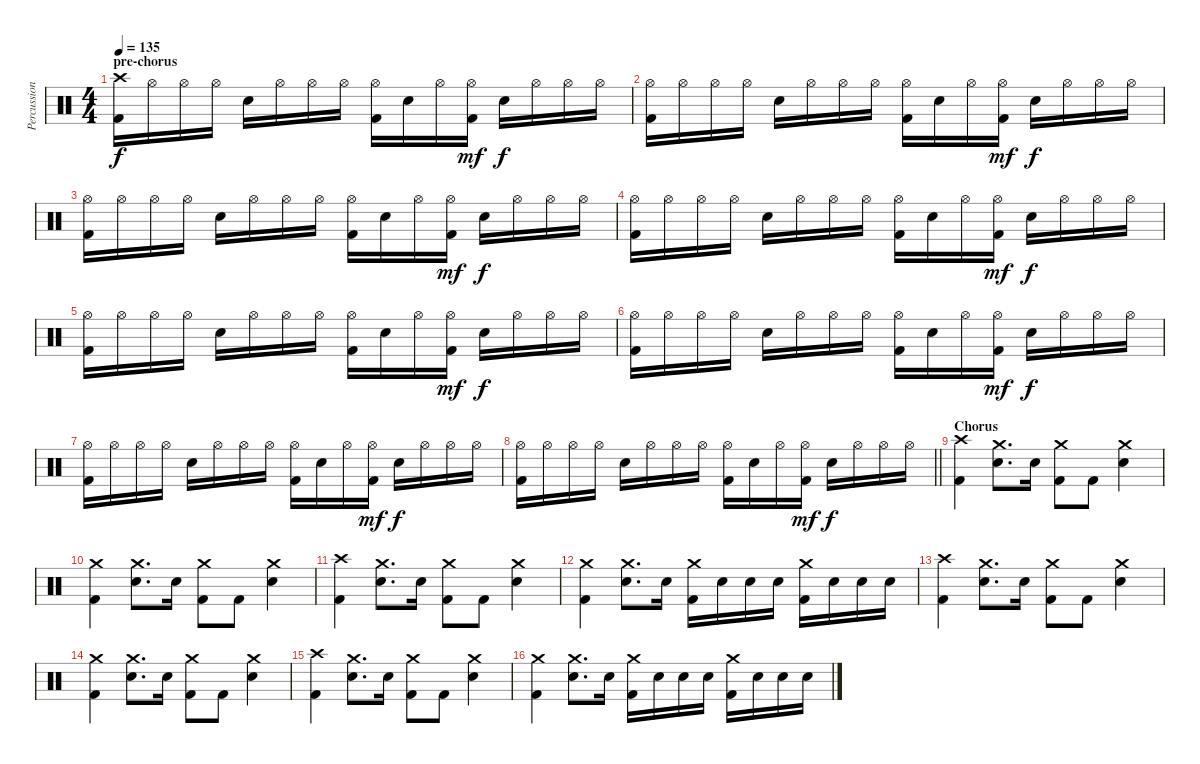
\track ("Percussion" "Percussion") {instrument percussion}
\staff {score}
\articulation defaults
\ts (4 4)
\section ("" "pre-chorus")
\tempo 135
\clef neutral
\ks c
("Crash high (hit)" "Kick (hit) 2").16{dy f} "Hi-Hat (open)".16 "Hi-Hat (open)".16 "Hi-Hat (open)".16 "Electric Snare (hit)".16 "Hi-Hat (open)".16 "Hi-Hat (open)".16 "Hi-Hat (open)".16 ("Hi-Hat (open)" "Kick (hit) 2").16 "Electric Snare (hit)".16 "Hi-Hat (open)".16 ("Hi-Hat (open)" "Kick (hit) 2").16{dy mf} "Electric Snare (hit)".16{dy f} "Hi-Hat (open)".16 "Hi-Hat (open)".16 "Hi-Hat (open)".16 |
("Hi-Hat (open)" "Kick (hit) 2").16 "Hi-Hat (open)".16 "Hi-Hat (open)".16 "Hi-Hat (open)".16 "Electric Snare (hit)".16 "Hi-Hat (open)".16 "Hi-Hat (open)".16 "Hi-Hat (open)".16 ("Hi-Hat (open)" "Kick (hit) 2").16 "Electric Snare (hit)".16 "Hi-Hat (open)".16 ("Hi-Hat (open)" "Kick (hit) 2").16{dy mf} "Electric Snare (hit)".16{dy f} "Hi-Hat (open)".16 "Hi-Hat (open)".16 "Hi-Hat (open)".16 |
("Hi-Hat (open)" "Kick (hit) 2").16 "Hi-Hat (open)".16 "Hi-Hat (open)".16 "Hi-Hat (open)".16 "Electric Snare (hit)".16 "Hi-Hat (open)".16 "Hi-Hat (open)".16 "Hi-Hat (open)".16 ("Hi-Hat (open)" "Kick (hit) 2").16 "Electric Snare (hit)".16 "Hi-Hat (open)".16 ("Hi-Hat (open)" "Kick (hit) 2").16{dy mf} "Electric Snare (hit)".16{dy f} "Hi-Hat (open)".16 "Hi-Hat (open)".16 "Hi-Hat (open)".16 |
("Hi-Hat (open)" "Kick (hit) 2").16 "Hi-Hat (open)".16 "Hi-Hat (open)".16 "Hi-Hat (open)".16 "Electric Snare (hit)".16 "Hi-Hat (open)".16 "Hi-Hat (open)".16 "Hi-Hat (open)".16 ("Hi-Hat (open)" "Kick (hit) 2").16 "Electric Snare (hit)".16 "Hi-Hat (open)".16 ("Hi-Hat (open)" "Kick (hit) 2").16{dy mf} "Electric Snare (hit)".16{dy f} "Hi-Hat (open)".16 "Hi-Hat (open)".16 "Hi-Hat (open)".16 |
("Hi-Hat (open)" "Kick (hit) 2").16 "Hi-Hat (open)".16 "Hi-Hat (open)".16 "Hi-Hat (open)".16 "Electric Snare (hit)".16 "Hi-Hat (open)".16 "Hi-Hat (open)".16 "Hi-Hat (open)".16 ("Hi-Hat (open)" "Kick (hit) 2").16 "Electric Snare (hit)".16 "Hi-Hat (open)".16 ("Hi-Hat (open)" "Kick (hit) 2").16{dy mf} "Electric Snare (hit)".16{dy f} "Hi-Hat (open)".16 "Hi-Hat (open)".16 "Hi-Hat (open)".16 |
("Hi-Hat (open)" "Kick (hit) 2").16 "Hi-Hat (open)".16 "Hi-Hat (open)".16 "Hi-Hat (open)".16 "Electric Snare (hit)".16 "Hi-Hat (open)".16 "Hi-Hat (open)".16 "Hi-Hat (open)".16 ("Hi-Hat (open)" "Kick (hit) 2").16 "Electric Snare (hit)".16 "Hi-Hat (open)".16 ("Hi-Hat (open)" "Kick (hit) 2").16{dy mf} "Electric Snare (hit)".16{dy f} "Hi-Hat (open)".16 "Hi-Hat (open)".16 "Hi-Hat (open)".16 |
("Hi-Hat (open)" "Kick (hit) 2").16 "Hi-Hat (open)".16 "Hi-Hat (open)".16 "Hi-Hat (open)".16 "Electric Snare (hit)".16 "Hi-Hat (open)".16 "Hi-Hat (open)".16 "Hi-Hat (open)".16 ("Hi-Hat (open)" "Kick (hit) 2").16 "Electric Snare (hit)".16 "Hi-Hat (open)".16 ("Hi-Hat (open)" "Kick (hit) 2").16{dy mf} "Electric Snare (hit)".16{dy f} "Hi-Hat (open)".16 "Hi-Hat (open)".16 "Hi-Hat (open)".16 |
\barLineRight lightlight
("Hi-Hat (open)" "Kick (hit) 2").16 "Hi-Hat (open)".16 "Hi-Hat (open)".16 "Hi-Hat (open)".16 "Electric Snare (hit)".16 "Hi-Hat (open)".16 "Hi-Hat (open)".16 "Hi-Hat (open)".16 ("Hi-Hat (open)" "Kick (hit) 2").16 "Electric Snare (hit)".16 "Hi-Hat (open)".16 ("Hi-Hat (open)" "Kick (hit) 2").16{dy mf} "Electric Snare (hit)".16{dy f} "Hi-Hat (open)".16 "Hi-Hat (open)".16 "Hi-Hat (open)".16 |
\section ("" "Chorus")
("Crash high (hit)" "Kick (hit) 2").4 ("Crash medium (hit)" "Electric Snare (hit)").8{d} "Electric Snare (hit)".16 ("Crash medium (hit)" "Kick (hit) 2").8 "Kick (hit) 2".8 ("Crash medium (hit)" "Electric Snare (hit)").4 |
("Crash medium (hit)" "Kick (hit) 2").4 ("Crash medium (hit)" "Electric Snare (hit)").8{d} "Electric Snare (hit)".16 ("Crash medium (hit)" "Kick (hit) 2").8 "Kick (hit) 2".8 ("Crash medium (hit)" "Electric Snare (hit)").4 |
("Crash high (hit)" "Kick (hit) 2").4 ("Crash medium (hit)" "Electric Snare (hit)").8{d} "Electric Snare (hit)".16 ("Crash medium (hit)" "Kick (hit) 2").8 "Kick (hit) 2".8 ("Crash medium (hit)" "Electric Snare (hit)").4 |
("Crash medium (hit)" "Kick (hit) 2").4 ("Crash medium (hit)" "Electric Snare (hit)").8{d} "Electric Snare (hit)".16 ("Crash medium (hit)" "Kick (hit) 2").16 "Electric Snare (hit)".16 "Electric Snare (hit)".16 "Electric Snare (hit)".16 ("Crash medium (hit)" "Kick (hit) 2").16 "Electric Snare (hit)".16 "Electric Snare (hit)".16 "Electric Snare (hit)".16 |
("Crash high (hit)" "Kick (hit) 2").4 ("Crash medium (hit)" "Electric Snare (hit)").8{d} "Electric Snare (hit)".16 ("Crash medium (hit)" "Kick (hit) 2").8 "Kick (hit) 2".8 ("Crash medium (hit)" "Electric Snare (hit)").4 |
("Crash medium (hit)" "Kick (hit) 2").4 ("Crash medium (hit)" "Electric Snare (hit)").8{d} "Electric Snare (hit)".16 ("Crash medium (hit)" "Kick (hit) 2").8 "Kick (hit) 2".8 ("Crash medium (hit)" "Electric Snare (hit)").4 |
("Crash high (hit)" "Kick (hit) 2").4 ("Crash medium (hit)" "Electric Snare (hit)").8{d} "Electric Snare (hit)".16 ("Crash medium (hit)" "Kick (hit) 2").8 "Kick (hit) 2".8 ("Crash medium (hit)" "Electric Snare (hit)").4 |
("Crash medium (hit)" "Kick (hit) 2").4 ("Crash medium (hit)" "Electric Snare (hit)").8{d} "Electric Snare (hit)".16 ("Crash medium (hit)" "Kick (hit) 2").16 "Electric Snare (hit)".16 "Electric Snare (hit)".16 "Electric Snare (hit)".16 ("Crash medium (hit)" "Kick (hit) 2").16 "Electric Snare (hit)".16 "Electric Snare (hit)".16 "Electric Snare (hit)".16
